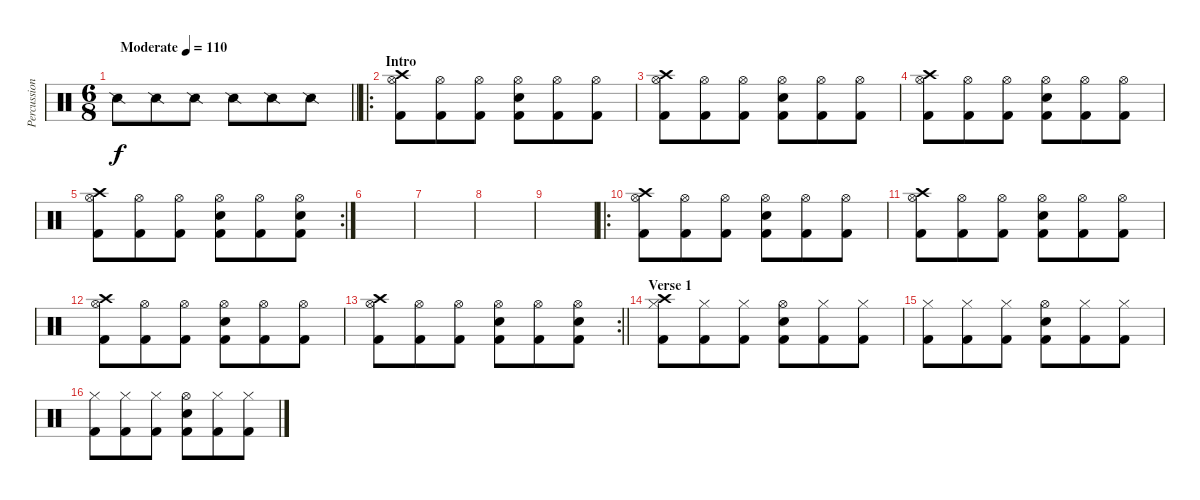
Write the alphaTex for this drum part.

\track ("Percussion" "Percussion") {instrument percussion}
\staff {score}
\articulation defaults
\ts (6 8)
\tempo (110 "Moderate")
\clef neutral
\barLineRight lightlight
\ks c "Snare (side stick) 2".8{dy f} "Snare (side stick) 2".8 "Snare (side stick) 2".8 "Snare (side stick) 2".8 "Snare (side stick) 2".8 "Snare (side stick) 2".8
|
\ro
\section ("" "Intro")
("Crash high (hit)" "Hi-Hat (open)" "Kick (hit) 2").8 ("Hi-Hat (open)" "Kick (hit) 2").8 ("Hi-Hat (open)" "Kick (hit) 2").8 ("Hi-Hat (open)" "Electric Snare (hit)" "Kick (hit) 2").8 ("Hi-Hat (open)" "Kick (hit) 2").8 ("Hi-Hat (open)" "Kick (hit) 2").8 |
("Crash high (hit)" "Hi-Hat (open)" "Kick (hit) 2").8 ("Hi-Hat (open)" "Kick (hit) 2").8 ("Hi-Hat (open)" "Kick (hit) 2").8 ("Hi-Hat (open)" "Electric Snare (hit)" "Kick (hit) 2").8 ("Hi-Hat (open)" "Kick (hit) 2").8 ("Hi-Hat (open)" "Kick (hit) 2").8 |
("Crash high (hit)" "Hi-Hat (open)" "Kick (hit) 2").8 ("Hi-Hat (open)" "Kick (hit) 2").8 ("Hi-Hat (open)" "Kick (hit) 2").8 ("Hi-Hat (open)" "Electric Snare (hit)" "Kick (hit) 2").8 ("Hi-Hat (open)" "Kick (hit) 2").8 ("Hi-Hat (open)" "Kick (hit) 2").8 |
\rc 2
("Crash high (hit)" "Hi-Hat (open)" "Kick (hit) 2").8 ("Hi-Hat (open)" "Kick (hit) 2").8 ("Hi-Hat (open)" "Kick (hit) 2").8 ("Hi-Hat (open)" "Electric Snare (hit)" "Kick (hit) 2").8 ("Hi-Hat (open)" "Kick (hit) 2").8 ("Hi-Hat (open)" "Electric Snare (hit)" "Kick (hit) 2").8 |
|
|
|
|
\ro
("Crash high (hit)" "Hi-Hat (open)" "Kick (hit) 2").8 ("Hi-Hat (open)" "Kick (hit) 2").8 ("Hi-Hat (open)" "Kick (hit) 2").8 ("Hi-Hat (open)" "Electric Snare (hit)" "Kick (hit) 2").8 ("Hi-Hat (open)" "Kick (hit) 2").8 ("Hi-Hat (open)" "Kick (hit) 2").8 |
("Crash high (hit)" "Hi-Hat (open)" "Kick (hit) 2").8 ("Hi-Hat (open)" "Kick (hit) 2").8 ("Hi-Hat (open)" "Kick (hit) 2").8 ("Hi-Hat (open)" "Electric Snare (hit)" "Kick (hit) 2").8 ("Hi-Hat (open)" "Kick (hit) 2").8 ("Hi-Hat (open)" "Kick (hit) 2").8 |
("Crash high (hit)" "Hi-Hat (open)" "Kick (hit) 2").8 ("Hi-Hat (open)" "Kick (hit) 2").8 ("Hi-Hat (open)" "Kick (hit) 2").8 ("Hi-Hat (open)" "Electric Snare (hit)" "Kick (hit) 2").8 ("Hi-Hat (open)" "Kick (hit) 2").8 ("Hi-Hat (open)" "Kick (hit) 2").8 |
\rc 2
\barLineRight lightlight
("Crash high (hit)" "Hi-Hat (open)" "Kick (hit) 2").8 ("Hi-Hat (open)" "Kick (hit) 2").8 ("Hi-Hat (open)" "Kick (hit) 2").8 ("Hi-Hat (open)" "Electric Snare (hit)" "Kick (hit) 2").8 ("Hi-Hat (open)" "Kick (hit) 2").8 ("Hi-Hat (open)" "Electric Snare (hit)" "Kick (hit) 2").8 |
\section ("" "Verse 1")
("Crash high (hit)" "Hi-Hat (closed)" "Kick (hit) 2").8 ("Hi-Hat (closed)" "Kick (hit) 2").8 ("Hi-Hat (closed)" "Kick (hit) 2").8 ("Hi-Hat (open)" "Electric Snare (hit)" "Kick (hit) 2").8 ("Hi-Hat (closed)" "Kick (hit) 2").8 ("Hi-Hat (closed)" "Kick (hit) 2").8 |
("Hi-Hat (closed)" "Kick (hit) 2").8 ("Hi-Hat (closed)" "Kick (hit) 2").8 ("Hi-Hat (closed)" "Kick (hit) 2").8 ("Hi-Hat (open)" "Electric Snare (hit)" "Kick (hit) 2").8 ("Hi-Hat (closed)" "Kick (hit) 2").8 ("Hi-Hat (closed)" "Kick (hit) 2").8 |
("Hi-Hat (closed)" "Kick (hit) 2").8 ("Hi-Hat (closed)" "Kick (hit) 2").8 ("Hi-Hat (closed)" "Kick (hit) 2").8 ("Hi-Hat (open)" "Electric Snare (hit)" "Kick (hit) 2").8 ("Hi-Hat (closed)" "Kick (hit) 2").8 ("Hi-Hat (closed)" "Kick (hit) 2").8
